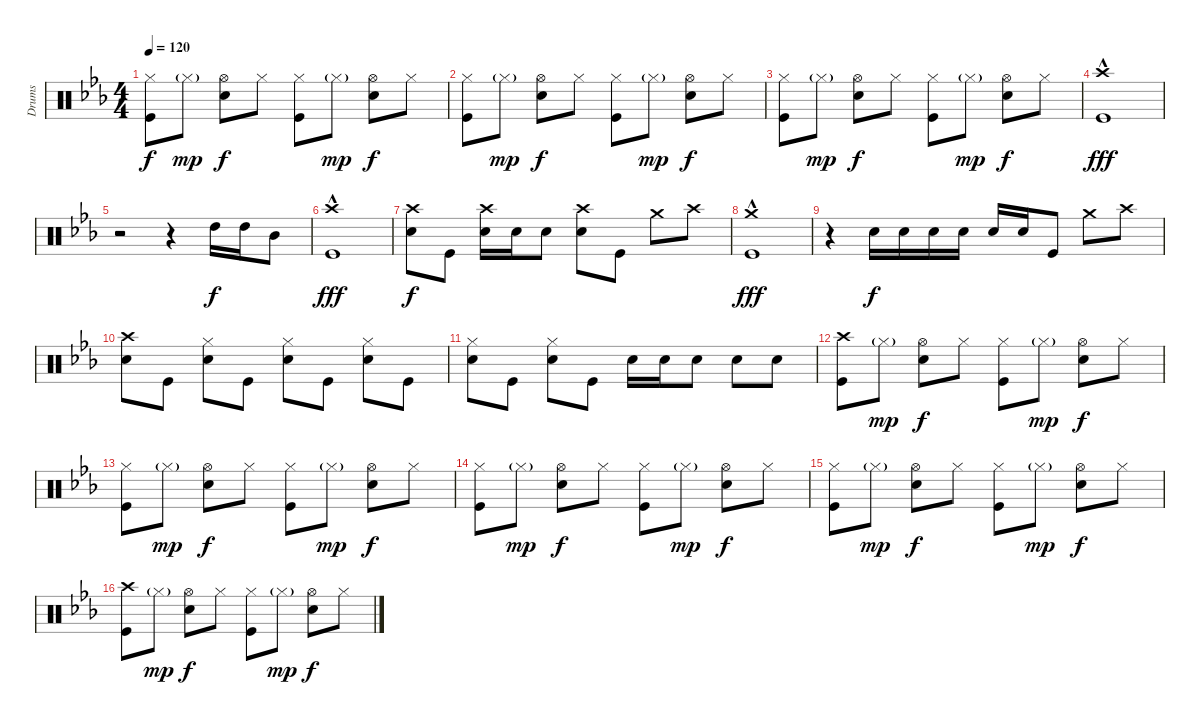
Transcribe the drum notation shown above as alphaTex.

\track ("Drums" "Drums") {instrument percussion}
\staff {score}
\articulation defaults
\ts (4 4)
\tempo 120
\clef neutral
\ks eb
("Hi-Hat (closed)" "Kick (hit)").8{dy f} "Hi-Hat (closed)"{g}.8{dy mp} ("Hi-Hat (open)" "Electric Snare (hit)").8{dy f} "Hi-Hat (closed)".8 ("Hi-Hat (closed)" "Kick (hit)").8 "Hi-Hat (closed)"{g}.8{dy mp} ("Hi-Hat (open)" "Electric Snare (hit)").8{dy f} "Hi-Hat (closed)".8 |
("Hi-Hat (closed)" "Kick (hit)").8 "Hi-Hat (closed)"{g}.8{dy mp} ("Hi-Hat (open)" "Electric Snare (hit)").8{dy f} "Hi-Hat (closed)".8 ("Hi-Hat (closed)" "Kick (hit)").8 "Hi-Hat (closed)"{g}.8{dy mp} ("Hi-Hat (open)" "Electric Snare (hit)").8{dy f} "Hi-Hat (closed)".8 |
("Hi-Hat (closed)" "Kick (hit)").8 "Hi-Hat (closed)"{g}.8{dy mp} ("Hi-Hat (open)" "Electric Snare (hit)").8{dy f} "Hi-Hat (closed)".8 ("Hi-Hat (closed)" "Kick (hit)").8 "Hi-Hat (closed)"{g}.8{dy mp} ("Hi-Hat (open)" "Electric Snare (hit)").8{dy f} "Hi-Hat (closed)".8 |
("Crash high (hit)"{hac} "Kick (hit)"{hac}).1{dy fff} |
r.2 r.4 "High Tom (hit)".16{dy f} "High Tom (hit)".16 "Mid Tom (hit)".8 |
("Crash high (hit)"{hac} "Kick (hit)"{hac}).1{dy fff} |
("Crash high (hit)" "Electric Snare (hit)").8{dy f} "Kick (hit)".8 ("Crash high (hit)" "Electric Snare (hit)").16 "Electric Snare (hit)".16 "Electric Snare (hit)".8 ("Crash high (hit)" "Electric Snare (hit)").8 "Kick (hit)".8 "Crash medium (hit)".8 "Crash high (hit)".8 |
("Crash medium (hit)"{hac} "Kick (hit)"{hac}).1{dy fff} |
r.4 "Electric Snare (hit)".16{dy f} "Electric Snare (hit)".16 "Electric Snare (hit)".16 "Electric Snare (hit)".16 "Electric Snare (hit)".16 "Electric Snare (hit)".16 "Kick (hit)".8 "Crash medium (hit)".8 "Crash high (hit)".8 |
("Crash high (hit)" "Electric Snare (hit)").8 "Kick (hit)".8 ("Hi-Hat (closed)" "Electric Snare (hit)").8 "Kick (hit)".8 ("Hi-Hat (closed)" "Electric Snare (hit)").8 "Kick (hit)".8 ("Hi-Hat (closed)" "Electric Snare (hit)").8 "Kick (hit)".8 |
("Hi-Hat (closed)" "Electric Snare (hit)").8 "Kick (hit)".8 ("Hi-Hat (closed)" "Electric Snare (hit)").8 "Kick (hit)".8 "Electric Snare (hit)".16 "Electric Snare (hit)".16 "Electric Snare (hit)".8 "Electric Snare (hit)".8 "Electric Snare (hit)".8 |
("Crash high (hit)" "Kick (hit)").8 "Hi-Hat (closed)"{g}.8{dy mp} ("Hi-Hat (open)" "Electric Snare (hit)").8{dy f} "Hi-Hat (closed)".8 ("Hi-Hat (closed)" "Kick (hit)").8 "Hi-Hat (closed)"{g}.8{dy mp} ("Hi-Hat (open)" "Electric Snare (hit)").8{dy f} "Hi-Hat (closed)".8 |
("Hi-Hat (closed)" "Kick (hit)").8 "Hi-Hat (closed)"{g}.8{dy mp} ("Hi-Hat (open)" "Electric Snare (hit)").8{dy f} "Hi-Hat (closed)".8 ("Hi-Hat (closed)" "Kick (hit)").8 "Hi-Hat (closed)"{g}.8{dy mp} ("Hi-Hat (open)" "Electric Snare (hit)").8{dy f} "Hi-Hat (closed)".8 |
("Hi-Hat (closed)" "Kick (hit)").8 "Hi-Hat (closed)"{g}.8{dy mp} ("Hi-Hat (open)" "Electric Snare (hit)").8{dy f} "Hi-Hat (closed)".8 ("Hi-Hat (closed)" "Kick (hit)").8 "Hi-Hat (closed)"{g}.8{dy mp} ("Hi-Hat (open)" "Electric Snare (hit)").8{dy f} "Hi-Hat (closed)".8 |
("Hi-Hat (closed)" "Kick (hit)").8 "Hi-Hat (closed)"{g}.8{dy mp} ("Hi-Hat (open)" "Electric Snare (hit)").8{dy f} "Hi-Hat (closed)".8 ("Hi-Hat (closed)" "Kick (hit)").8 "Hi-Hat (closed)"{g}.8{dy mp} ("Hi-Hat (open)" "Electric Snare (hit)").8{dy f} "Hi-Hat (closed)".8 |
("Crash high (hit)" "Kick (hit)").8 "Hi-Hat (closed)"{g}.8{dy mp} ("Hi-Hat (open)" "Electric Snare (hit)").8{dy f} "Hi-Hat (closed)".8 ("Hi-Hat (closed)" "Kick (hit)").8 "Hi-Hat (closed)"{g}.8{dy mp} ("Hi-Hat (open)" "Electric Snare (hit)").8{dy f} "Hi-Hat (closed)".8
